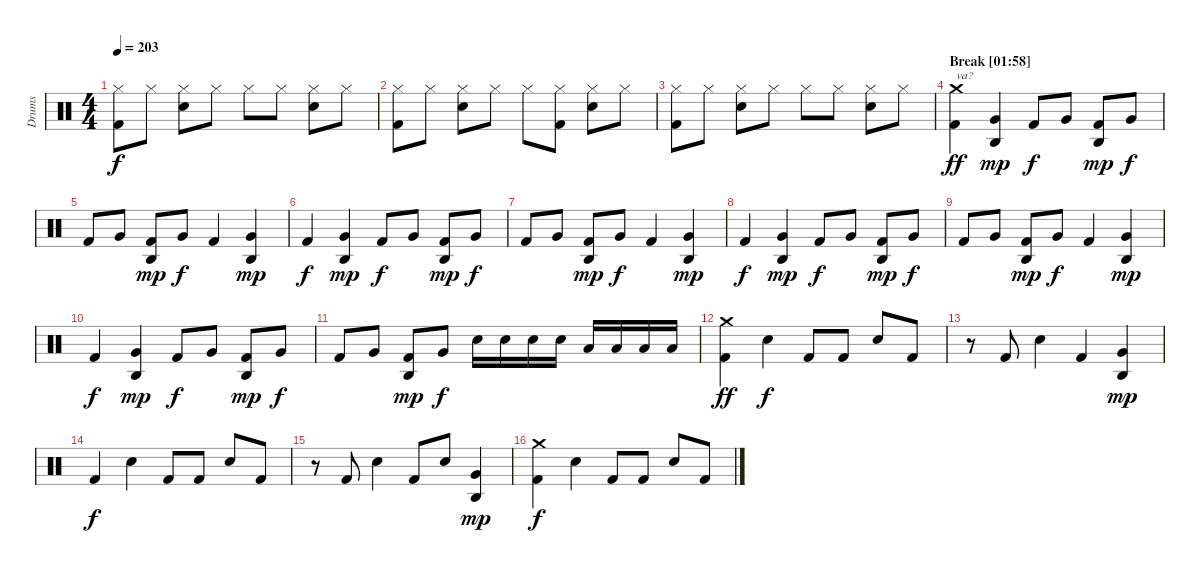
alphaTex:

\track ("Drums" "Drums") {instrument percussion}
\staff {score}
\articulation defaults
\ts (4 4)
\tempo 203
\clef neutral
\ks c
("Hi-Hat (closed)" "Kick (hit) 2").8{dy f} "Hi-Hat (closed)".8 ("Hi-Hat (closed)" "Electric Snare (hit)").8 "Hi-Hat (closed)".8 "Hi-Hat (closed)".8 "Hi-Hat (closed)".8 ("Hi-Hat (closed)" "Electric Snare (hit)").8 "Hi-Hat (closed)".8 |
\section ("" "")
("Hi-Hat (closed)" "Kick (hit) 2").8 "Hi-Hat (closed)".8 ("Hi-Hat (closed)" "Electric Snare (hit)").8 "Hi-Hat (closed)".8 "Hi-Hat (closed)".8 ("Hi-Hat (closed)" "Kick (hit) 2").8 ("Hi-Hat (closed)" "Electric Snare (hit)").8 "Hi-Hat (closed)".8 |
("Hi-Hat (closed)" "Kick (hit) 2").8 "Hi-Hat (closed)".8 ("Hi-Hat (closed)" "Electric Snare (hit)").8 "Hi-Hat (closed)".8 "Hi-Hat (closed)".8 "Hi-Hat (closed)".8 ("Hi-Hat (closed)" "Electric Snare (hit)").8 "Hi-Hat (closed)".8 |
\section ("" "Break [01:58]")
("Crash medium (hit)" "Kick (hit) 2").4{txt "va?" dy ff} ("Agogo high (hit)" "Very Low Tom (hit)").4{dy mp} "Kick (hit) 2".8{dy f} "Very Low Tom (hit)".8 ("Agogo high (hit)" "Kick (hit) 2").8{dy mp} "Very Low Tom (hit)".8{dy f} |
"Kick (hit) 2".8 "Very Low Tom (hit)".8 ("Agogo high (hit)" "Kick (hit) 2").8{dy mp} "Very Low Tom (hit)".8{dy f} "Kick (hit) 2".4 ("Agogo high (hit)" "Very Low Tom (hit)").4{dy mp} |
"Kick (hit) 2".4{dy f} ("Agogo high (hit)" "Very Low Tom (hit)").4{dy mp} "Kick (hit) 2".8{dy f} "Very Low Tom (hit)".8 ("Agogo high (hit)" "Kick (hit) 2").8{dy mp} "Very Low Tom (hit)".8{dy f} |
"Kick (hit) 2".8 "Very Low Tom (hit)".8 ("Agogo high (hit)" "Kick (hit) 2").8{dy mp} "Very Low Tom (hit)".8{dy f} "Kick (hit) 2".4 ("Agogo high (hit)" "Very Low Tom (hit)").4{dy mp} |
"Kick (hit) 2".4{dy f} ("Agogo high (hit)" "Very Low Tom (hit)").4{dy mp} "Kick (hit) 2".8{dy f} "Very Low Tom (hit)".8 ("Agogo high (hit)" "Kick (hit) 2").8{dy mp} "Very Low Tom (hit)".8{dy f} |
"Kick (hit) 2".8 "Very Low Tom (hit)".8 ("Agogo high (hit)" "Kick (hit) 2").8{dy mp} "Very Low Tom (hit)".8{dy f} "Kick (hit) 2".4 ("Agogo high (hit)" "Very Low Tom (hit)").4{dy mp} |
"Kick (hit) 2".4{dy f} ("Agogo high (hit)" "Very Low Tom (hit)").4{dy mp} "Kick (hit) 2".8{dy f} "Very Low Tom (hit)".8 ("Agogo high (hit)" "Kick (hit) 2").8{dy mp} "Very Low Tom (hit)".8{dy f} |
"Kick (hit) 2".8 "Very Low Tom (hit)".8 ("Agogo high (hit)" "Kick (hit) 2").8{dy mp} "Very Low Tom (hit)".8{dy f} "Electric Snare (hit)".16 "Electric Snare (hit)".16 "Electric Snare (hit)".16 "Electric Snare (hit)".16 "Low Tom (hit)".16 "Low Tom (hit)".16 "Low Tom (hit)".16 "Low Tom (hit)".16 |
\section ("" "")
("Crash medium (hit)" "Kick (hit) 2").4{dy ff} "Electric Snare (hit)".4{dy f} "Kick (hit) 2".8 "Kick (hit) 2".8 "Electric Snare (hit)".8 "Kick (hit) 2".8 |
r.8 "Kick (hit) 2".8 "Electric Snare (hit)".4 "Kick (hit) 2".4 ("Agogo high (hit)" "Very Low Tom (hit)").4{dy mp} |
"Kick (hit) 2".4{dy f} "Electric Snare (hit)".4 "Kick (hit) 2".8 "Kick (hit) 2".8 "Electric Snare (hit)".8 "Kick (hit) 2".8 |
r.8 "Kick (hit) 2".8 "Electric Snare (hit)".4 "Kick (hit) 2".8 "Electric Snare (hit)".8 ("Agogo high (hit)" "Very Low Tom (hit)").4{dy mp} |
\section ("" "")
("Crash medium (hit)" "Kick (hit) 2").4{dy f} "Electric Snare (hit)".4 "Kick (hit) 2".8 "Kick (hit) 2".8 "Electric Snare (hit)".8 "Kick (hit) 2".8
